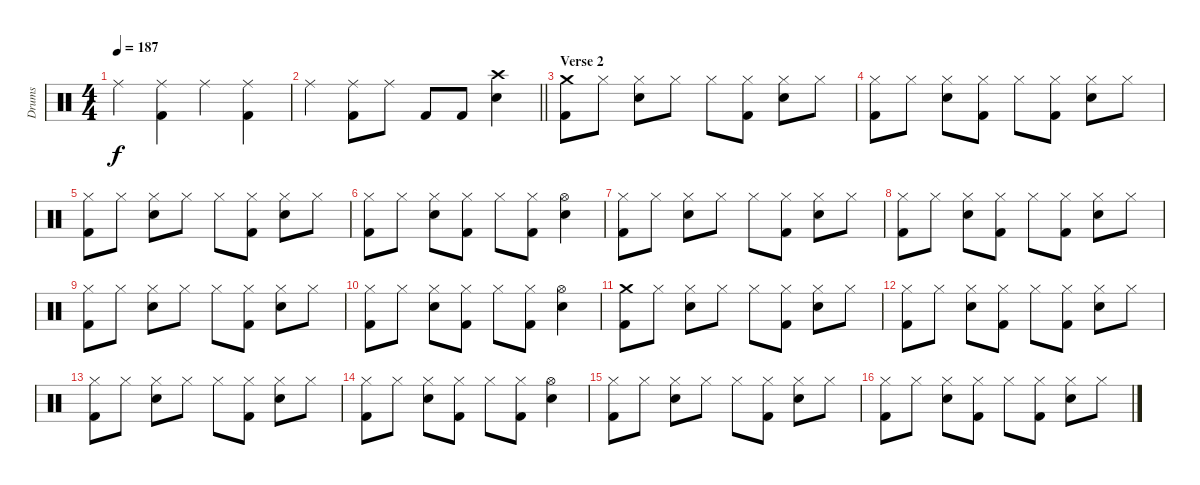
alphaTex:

\track ("Drums" "Drums") {instrument percussion}
\staff {score}
\articulation defaults
\ts (4 4)
\tempo 187
\clef neutral
\ks c "Ride (middle)".4{dy f}
("Ride (middle)" "Kick (hit) 2").4 "Ride (middle)".4 ("Ride (middle)" "Kick (hit) 2").4 |
\barLineRight lightlight "Ride (middle)".4
("Ride (middle)" "Kick (hit) 2").8 "Ride (middle)".8 "Kick (hit) 2".8 "Kick (hit) 2".8 ("Crash high (hit)" "Electric Snare (hit)").4 |
\section ("" "Verse 2")
("Crash medium (hit)" "Kick (hit) 2").8 "Hi-Hat (closed)".8 ("Hi-Hat (closed)" "Electric Snare (hit)").8 "Hi-Hat (closed)".8 "Hi-Hat (closed)".8 ("Hi-Hat (closed)" "Kick (hit) 2").8 ("Hi-Hat (closed)" "Electric Snare (hit)").8 "Hi-Hat (closed)".8 |
("Hi-Hat (closed)" "Kick (hit) 2").8 "Hi-Hat (closed)".8 ("Hi-Hat (closed)" "Electric Snare (hit)").8 ("Hi-Hat (closed)" "Kick (hit) 2").8 "Hi-Hat (closed)".8 ("Hi-Hat (closed)" "Kick (hit) 2").8 ("Hi-Hat (closed)" "Electric Snare (hit)").8 "Hi-Hat (closed)".8 |
("Hi-Hat (closed)" "Kick (hit) 2").8 "Hi-Hat (closed)".8 ("Hi-Hat (closed)" "Electric Snare (hit)").8 "Hi-Hat (closed)".8 "Hi-Hat (closed)".8 ("Hi-Hat (closed)" "Kick (hit) 2").8 ("Hi-Hat (closed)" "Electric Snare (hit)").8 "Hi-Hat (closed)".8 |
("Hi-Hat (closed)" "Kick (hit) 2").8 "Hi-Hat (closed)".8 ("Hi-Hat (closed)" "Electric Snare (hit)").8 ("Hi-Hat (closed)" "Kick (hit) 2").8 "Hi-Hat (closed)".8 ("Hi-Hat (closed)" "Kick (hit) 2").8 ("Hi-Hat (open)" "Electric Snare (hit)").4 |
("Hi-Hat (closed)" "Kick (hit) 2").8 "Hi-Hat (closed)".8 ("Hi-Hat (closed)" "Electric Snare (hit)").8 "Hi-Hat (closed)".8 "Hi-Hat (closed)".8 ("Hi-Hat (closed)" "Kick (hit) 2").8 ("Hi-Hat (closed)" "Electric Snare (hit)").8 "Hi-Hat (closed)".8 |
("Hi-Hat (closed)" "Kick (hit) 2").8 "Hi-Hat (closed)".8 ("Hi-Hat (closed)" "Electric Snare (hit)").8 ("Hi-Hat (closed)" "Kick (hit) 2").8 "Hi-Hat (closed)".8 ("Hi-Hat (closed)" "Kick (hit) 2").8 ("Hi-Hat (closed)" "Electric Snare (hit)").8 "Hi-Hat (closed)".8 |
("Hi-Hat (closed)" "Kick (hit) 2").8 "Hi-Hat (closed)".8 ("Hi-Hat (closed)" "Electric Snare (hit)").8 "Hi-Hat (closed)".8 "Hi-Hat (closed)".8 ("Hi-Hat (closed)" "Kick (hit) 2").8 ("Hi-Hat (closed)" "Electric Snare (hit)").8 "Hi-Hat (closed)".8 |
("Hi-Hat (closed)" "Kick (hit) 2").8 "Hi-Hat (closed)".8 ("Hi-Hat (closed)" "Electric Snare (hit)").8 ("Hi-Hat (closed)" "Kick (hit) 2").8 "Hi-Hat (closed)".8 ("Hi-Hat (closed)" "Kick (hit) 2").8 ("Hi-Hat (open)" "Electric Snare (hit)").4 |
("Crash medium (hit)" "Kick (hit) 2").8 "Hi-Hat (closed)".8 ("Hi-Hat (closed)" "Electric Snare (hit)").8 "Hi-Hat (closed)".8 "Hi-Hat (closed)".8 ("Hi-Hat (closed)" "Kick (hit) 2").8 ("Hi-Hat (closed)" "Electric Snare (hit)").8 "Hi-Hat (closed)".8 |
("Hi-Hat (closed)" "Kick (hit) 2").8 "Hi-Hat (closed)".8 ("Hi-Hat (closed)" "Electric Snare (hit)").8 ("Hi-Hat (closed)" "Kick (hit) 2").8 "Hi-Hat (closed)".8 ("Hi-Hat (closed)" "Kick (hit) 2").8 ("Hi-Hat (closed)" "Electric Snare (hit)").8 "Hi-Hat (closed)".8 |
("Hi-Hat (closed)" "Kick (hit) 2").8 "Hi-Hat (closed)".8 ("Hi-Hat (closed)" "Electric Snare (hit)").8 "Hi-Hat (closed)".8 "Hi-Hat (closed)".8 ("Hi-Hat (closed)" "Kick (hit) 2").8 ("Hi-Hat (closed)" "Electric Snare (hit)").8 "Hi-Hat (closed)".8 |
("Hi-Hat (closed)" "Kick (hit) 2").8 "Hi-Hat (closed)".8 ("Hi-Hat (closed)" "Electric Snare (hit)").8 ("Hi-Hat (closed)" "Kick (hit) 2").8 "Hi-Hat (closed)".8 ("Hi-Hat (closed)" "Kick (hit) 2").8 ("Hi-Hat (open)" "Electric Snare (hit)").4 |
("Hi-Hat (closed)" "Kick (hit) 2").8 "Hi-Hat (closed)".8 ("Hi-Hat (closed)" "Electric Snare (hit)").8 "Hi-Hat (closed)".8 "Hi-Hat (closed)".8 ("Hi-Hat (closed)" "Kick (hit) 2").8 ("Hi-Hat (closed)" "Electric Snare (hit)").8 "Hi-Hat (closed)".8 |
("Hi-Hat (closed)" "Kick (hit) 2").8 "Hi-Hat (closed)".8 ("Hi-Hat (closed)" "Electric Snare (hit)").8 ("Hi-Hat (closed)" "Kick (hit) 2").8 "Hi-Hat (closed)".8 ("Hi-Hat (closed)" "Kick (hit) 2").8 ("Hi-Hat (closed)" "Electric Snare (hit)").8 "Hi-Hat (closed)".8
